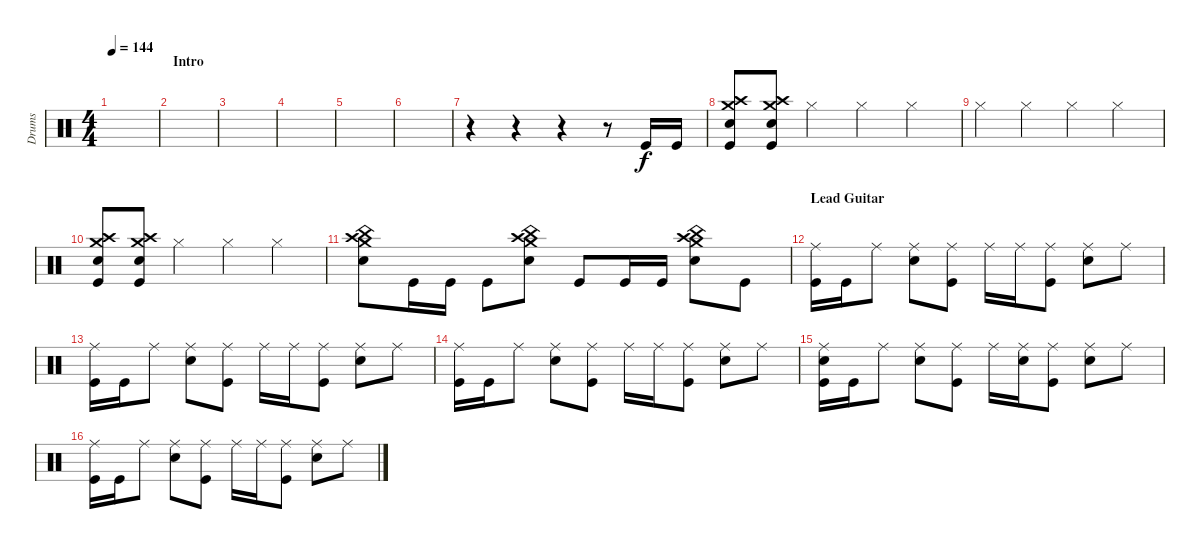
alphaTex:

\track ("Drums" "Drums") {instrument percussion}
\staff {score}
\articulation defaults
\ts (4 4)
\tempo 144
\clef neutral
\ks c
|
\section ("" "Intro")
|
|
|
|
|
r.4 r.4 r.4 r.8 "Kick (hit)".16 "Kick (hit)".16 |
("Crash medium (hit)" "Crash high (hit)" "Snare (hit) 2" "Kick (hit)").8 ("Crash medium (hit)" "Crash high (hit)" "Snare (hit) 2" "Kick (hit)").8 "Hi-Hat (closed)".4 "Hi-Hat (closed)".4 "Hi-Hat (closed)".4 |
"Hi-Hat (closed)".4 "Hi-Hat (closed)".4 "Hi-Hat (closed)".4 "Hi-Hat (closed)".4 |
("Crash medium (hit)" "Crash high (hit)" "Snare (hit) 2" "Kick (hit)").8 ("Crash medium (hit)" "Crash high (hit)" "Snare (hit) 2" "Kick (hit)").8 "Hi-Hat (closed)".4 "Hi-Hat (closed)".4 "Hi-Hat (closed)".4 |
("China (hit)" "Crash medium (hit)" "Crash high (hit)" "Snare (hit) 2").8 "Kick (hit)".16 "Kick (hit)".16 "Kick (hit)".8 ("China (hit)" "Crash medium (hit)" "Crash high (hit)" "Snare (hit) 2").8 "Kick (hit)".8 "Kick (hit)".16 "Kick (hit)".16 ("China (hit)" "Crash medium (hit)" "Crash high (hit)" "Snare (hit) 2").8 "Kick (hit)".8 |
\section ("" "Lead Guitar ")
("Ride (middle)" "Kick (hit)").16 "Kick (hit)".16 "Ride (middle)".8 ("Ride (middle)" "Snare (hit) 2").8 ("Ride (middle)" "Kick (hit)").8 "Ride (middle)".16 "Ride (middle)".16 ("Ride (middle)" "Kick (hit)").8 ("Ride (middle)" "Snare (hit) 2").8 "Ride (middle)".8 |
("Ride (middle)" "Kick (hit)").16 "Kick (hit)".16 "Ride (middle)".8 ("Ride (middle)" "Snare (hit) 2").8 ("Ride (middle)" "Kick (hit)").8 "Ride (middle)".16 "Ride (middle)".16 ("Ride (middle)" "Kick (hit)").8 ("Ride (middle)" "Snare (hit) 2").8 "Ride (middle)".8 |
("Ride (middle)" "Kick (hit)").16 "Kick (hit)".16 "Ride (middle)".8 ("Ride (middle)" "Snare (hit) 2").8 ("Ride (middle)" "Kick (hit)").8 "Ride (middle)".16 "Ride (middle)".16 ("Ride (middle)" "Kick (hit)").8 ("Ride (middle)" "Snare (hit) 2").8 "Ride (middle)".8 |
("Ride (middle)" "Snare (hit) 2" "Kick (hit)").16 "Kick (hit)".16 "Ride (middle)".8 ("Ride (middle)" "Snare (hit) 2").8 ("Ride (middle)" "Kick (hit)").8 "Ride (middle)".16 ("Ride (middle)" "Snare (hit) 2").16 ("Ride (middle)" "Kick (hit)").8 ("Ride (middle)" "Snare (hit) 2").8 "Ride (middle)".8 |
("Ride (middle)" "Kick (hit)").16 "Kick (hit)".16 "Ride (middle)".8 ("Ride (middle)" "Snare (hit) 2").8 ("Ride (middle)" "Kick (hit)").8 "Ride (middle)".16 "Ride (middle)".16 ("Ride (middle)" "Kick (hit)").8 ("Ride (middle)" "Snare (hit) 2").8 "Ride (middle)".8
